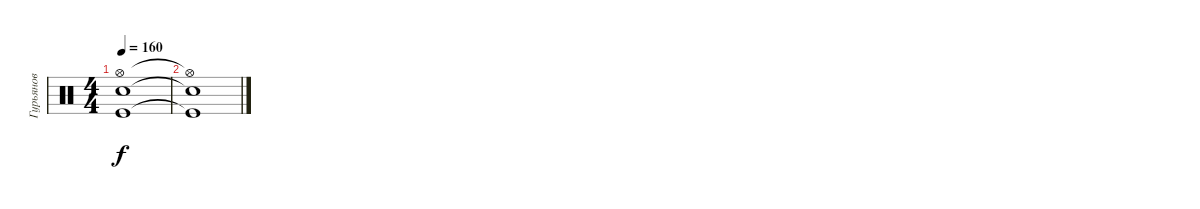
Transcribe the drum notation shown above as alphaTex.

\track ("Гурьянов" "Гурьянов") {instrument percussion}
\staff {score}
\articulation defaults
\ts (4 4)
\tempo 160
\clef neutral
\ks c
("Hi-Hat (open)"{t} "Snare (hit) 2"{t} "Kick (hit)"{t}).1{dy f} |
("Hi-Hat (open)"{t} "Snare (hit) 2"{t} "Kick (hit)"{t}).1
